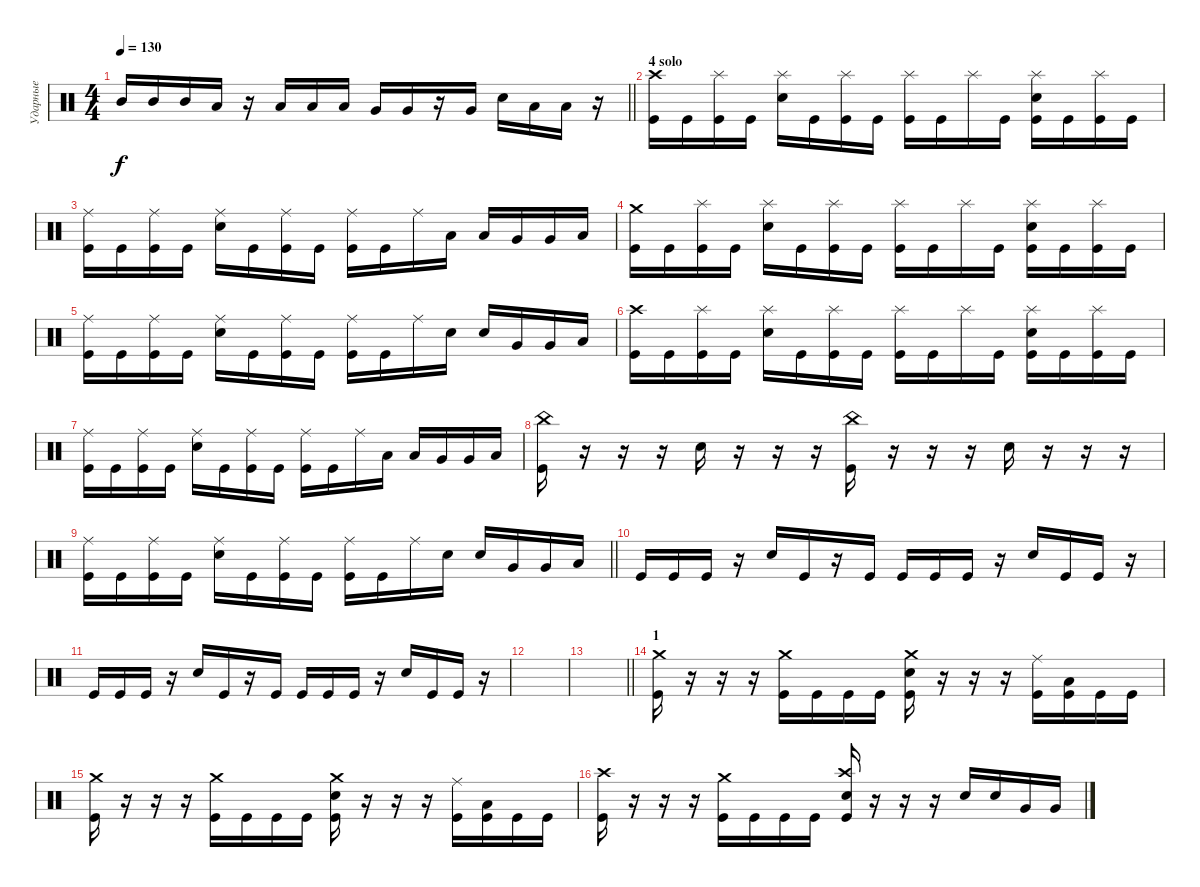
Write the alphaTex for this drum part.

\track ("Ударные" "Ударные") {instrument percussion}
\staff {score}
\articulation defaults
\ts (4 4)
\tempo 130
\clef neutral
\barLineRight lightlight
\ks c "Mid Tom (hit)".16{dy f} "Mid Tom (hit)".16 "Mid Tom (hit)".16 "Low Tom (hit)".16
r.16 "Low Tom (hit)".16 "Low Tom (hit)".16 "Low Tom (hit)".16 "Very Low Tom (hit)".16 "Very Low Tom (hit)".16 r.16 "Very Low Tom (hit)".16 "Electric Snare (hit)".16 "Low Floor Tom (hit)".16 "Low Floor Tom (hit)".16 r.16 |
\section ("" "4 solo")
("Crash high (hit)" "Kick (hit)").16 "Kick (hit)".16 ("Splash (hit)" "Kick (hit)").16 "Kick (hit)".16 ("Splash (hit)" "Electric Snare (hit)").16 "Kick (hit)".16 ("Splash (hit)" "Kick (hit)").16 "Kick (hit)".16 ("Splash (hit)" "Kick (hit)").16 "Kick (hit)".16 "Splash (hit)".16 "Kick (hit)".16 ("Splash (hit)" "Electric Snare (hit)" "Kick (hit)").16 "Kick (hit)".16 ("Splash (hit)" "Kick (hit)").16 "Kick (hit)".16 |
("Ride (middle)" "Kick (hit)").16 "Kick (hit)".16 ("Ride (middle)" "Kick (hit)").16 "Kick (hit)".16 ("Ride (middle)" "Electric Snare (hit)").16 "Kick (hit)".16 ("Ride (middle)" "Kick (hit)").16 "Kick (hit)".16 ("Ride (middle)" "Kick (hit)").16 "Kick (hit)".16 "Ride (middle)".16 "Low Tom (hit)".16 "Low Tom (hit)".16 "Very Low Tom (hit)".16 "Very Low Tom (hit)".16 "Low Tom (hit)".16 |
("Crash medium (hit)" "Kick (hit)").16 "Kick (hit)".16 ("Splash (hit)" "Kick (hit)").16 "Kick (hit)".16 ("Splash (hit)" "Electric Snare (hit)").16 "Kick (hit)".16 ("Splash (hit)" "Kick (hit)").16 "Kick (hit)".16 ("Splash (hit)" "Kick (hit)").16 "Kick (hit)".16 "Splash (hit)".16 "Kick (hit)".16 ("Splash (hit)" "Electric Snare (hit)" "Kick (hit)").16 "Kick (hit)".16 ("Splash (hit)" "Kick (hit)").16 "Kick (hit)".16 |
("Ride (middle)" "Kick (hit)").16 "Kick (hit)".16 ("Ride (middle)" "Kick (hit)").16 "Kick (hit)".16 ("Ride (middle)" "Electric Snare (hit)").16 "Kick (hit)".16 ("Ride (middle)" "Kick (hit)").16 "Kick (hit)".16 ("Ride (middle)" "Kick (hit)").16 "Kick (hit)".16 "Ride (middle)".16 "Electric Snare (hit)".16 "Electric Snare (hit)".16 "Very Low Tom (hit)".16 "Very Low Tom (hit)".16 "Low Tom (hit)".16 |
("Crash high (hit)" "Kick (hit)").16 "Kick (hit)".16 ("Splash (hit)" "Kick (hit)").16 "Kick (hit)".16 ("Splash (hit)" "Electric Snare (hit)").16 "Kick (hit)".16 ("Splash (hit)" "Kick (hit)").16 "Kick (hit)".16 ("Splash (hit)" "Kick (hit)").16 "Kick (hit)".16 "Splash (hit)".16 "Kick (hit)".16 ("Splash (hit)" "Electric Snare (hit)" "Kick (hit)").16 "Kick (hit)".16 ("Splash (hit)" "Kick (hit)").16 "Kick (hit)".16 |
("Ride (middle)" "Kick (hit)").16 "Kick (hit)".16 ("Ride (middle)" "Kick (hit)").16 "Kick (hit)".16 ("Ride (middle)" "Electric Snare (hit)").16 "Kick (hit)".16 ("Ride (middle)" "Kick (hit)").16 "Kick (hit)".16 ("Ride (middle)" "Kick (hit)").16 "Kick (hit)".16 "Ride (middle)".16 "Low Tom (hit)".16 "Low Tom (hit)".16 "Very Low Tom (hit)".16 "Very Low Tom (hit)".16 "Low Tom (hit)".16 |
("China (hit)" "Kick (hit)").16 r.16 r.16 r.16 "Electric Snare (hit)".16 r.16 r.16 r.16 ("China (hit)" "Kick (hit)").16 r.16 r.16 r.16 "Electric Snare (hit)".16 r.16 r.16 r.16 |
\barLineRight lightlight
("Ride (middle)" "Kick (hit)").16 "Kick (hit)".16 ("Ride (middle)" "Kick (hit)").16 "Kick (hit)".16 ("Ride (middle)" "Electric Snare (hit)").16 "Kick (hit)".16 ("Ride (middle)" "Kick (hit)").16 "Kick (hit)".16 ("Ride (middle)" "Kick (hit)").16 "Kick (hit)".16 "Ride (middle)".16 "Electric Snare (hit)".16 "Electric Snare (hit)".16 "Very Low Tom (hit)".16 "Very Low Tom (hit)".16 "Low Tom (hit)".16 |
\section ("" " ")
"Kick (hit)".16 "Kick (hit)".16 "Kick (hit)".16 r.16 "Electric Snare (hit)".16 "Kick (hit)".16 r.16 "Kick (hit)".16 "Kick (hit)".16 "Kick (hit)".16 "Kick (hit)".16 r.16 "Electric Snare (hit)".16 "Kick (hit)".16 "Kick (hit)".16 r.16 |
"Kick (hit)".16 "Kick (hit)".16 "Kick (hit)".16 r.16 "Electric Snare (hit)".16 "Kick (hit)".16 r.16 "Kick (hit)".16 "Kick (hit)".16 "Kick (hit)".16 "Kick (hit)".16 r.16 "Electric Snare (hit)".16 "Kick (hit)".16 "Kick (hit)".16 r.16 |
|
\barLineRight lightlight
|
\section ("" "1")
("Crash medium (hit)" "Kick (hit)").16 r.16 r.16 r.16 ("Crash medium (hit)" "Kick (hit)").16 "Kick (hit)".16 "Kick (hit)".16 "Kick (hit)".16 ("Crash medium (hit)" "Electric Snare (hit)" "Kick (hit)").16 r.16 r.16 r.16 ("Ride (middle)" "Kick (hit)").16 ("Low Tom (hit)" "Kick (hit)").16 "Kick (hit)".16 "Kick (hit)".16 |
("Crash medium (hit)" "Kick (hit)").16 r.16 r.16 r.16 ("Crash medium (hit)" "Kick (hit)").16 "Kick (hit)".16 "Kick (hit)".16 "Kick (hit)".16 ("Crash medium (hit)" "Electric Snare (hit)" "Kick (hit)").16 r.16 r.16 r.16 ("Ride (middle)" "Kick (hit)").16 ("Low Tom (hit)" "Kick (hit)").16 "Kick (hit)".16 "Kick (hit)".16 |
("Crash high (hit)" "Kick (hit)").16 r.16 r.16 r.16 ("Crash medium (hit)" "Kick (hit)").16 "Kick (hit)".16 "Kick (hit)".16 "Kick (hit)".16 ("Crash high (hit)" "Electric Snare (hit)" "Kick (hit)").16 r.16 r.16 r.16 "Electric Snare (hit)".16 "Electric Snare (hit)".16 "Very Low Tom (hit)".16 "Very Low Tom (hit)".16
